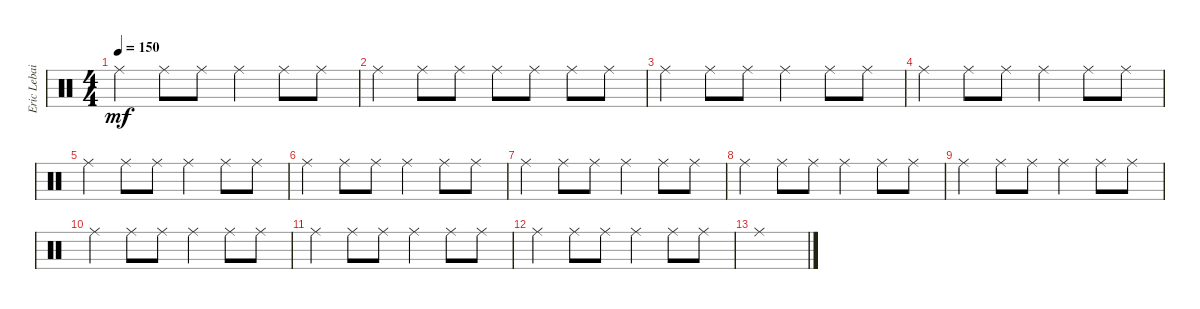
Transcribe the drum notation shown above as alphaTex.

\track ("Eric Lebailly - Drums" "Eric Lebai") {instrument percussion}
\staff {score}
\articulation defaults
\ts (4 4)
\tempo 150
\clef neutral
\ks c "Ride (middle)".4{dy mf} "Ride (middle)".8 "Ride (middle)".8 "Ride (middle)".4 "Ride (middle)".8 "Ride (middle)".8
|
"Ride (middle)".4 "Ride (middle)".8 "Ride (middle)".8 "Ride (middle)".8 "Ride (middle)".8 "Ride (middle)".8 "Ride (middle)".8 |
"Ride (middle)".4 "Ride (middle)".8 "Ride (middle)".8 "Ride (middle)".4 "Ride (middle)".8 "Ride (middle)".8 |
"Ride (middle)".4 "Ride (middle)".8 "Ride (middle)".8 "Ride (middle)".4 "Ride (middle)".8 "Ride (middle)".8 |
"Ride (middle)".4 "Ride (middle)".8 "Ride (middle)".8 "Ride (middle)".4 "Ride (middle)".8 "Ride (middle)".8 |
"Ride (middle)".4 "Ride (middle)".8 "Ride (middle)".8 "Ride (middle)".4 "Ride (middle)".8 "Ride (middle)".8 |
"Ride (middle)".4 "Ride (middle)".8 "Ride (middle)".8 "Ride (middle)".4 "Ride (middle)".8 "Ride (middle)".8 |
"Ride (middle)".4 "Ride (middle)".8 "Ride (middle)".8 "Ride (middle)".4 "Ride (middle)".8 "Ride (middle)".8 |
"Ride (middle)".4 "Ride (middle)".8 "Ride (middle)".8 "Ride (middle)".4 "Ride (middle)".8 "Ride (middle)".8 |
"Ride (middle)".4 "Ride (middle)".8 "Ride (middle)".8 "Ride (middle)".4 "Ride (middle)".8 "Ride (middle)".8 |
"Ride (middle)".4 "Ride (middle)".8 "Ride (middle)".8 "Ride (middle)".4 "Ride (middle)".8 "Ride (middle)".8 |
"Ride (middle)".4 "Ride (middle)".8 "Ride (middle)".8 "Ride (middle)".4 "Ride (middle)".8 "Ride (middle)".8 |
"Ride (middle)".1
